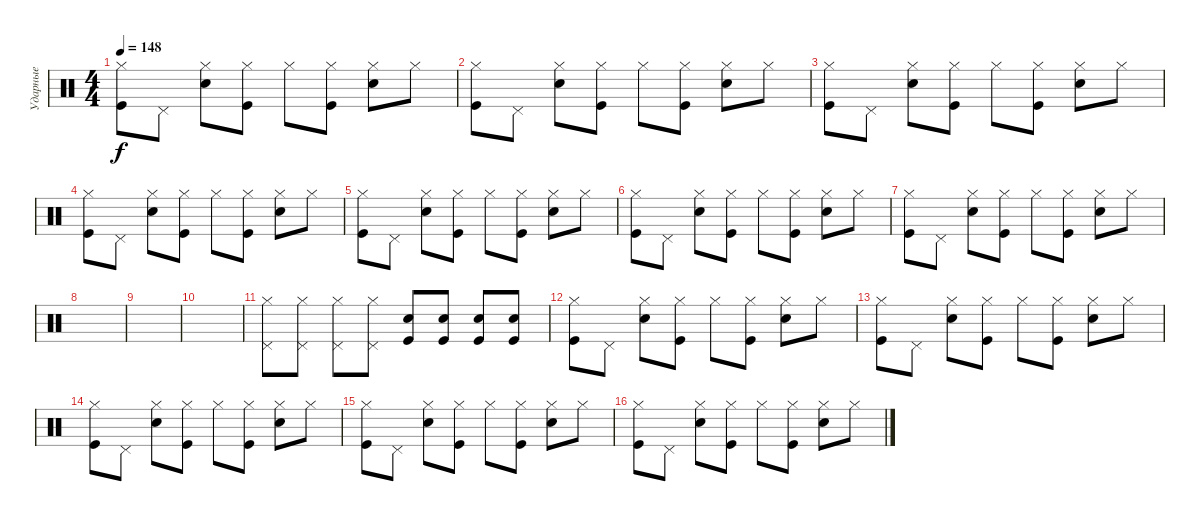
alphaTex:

\track ("Ударные" "Ударные") {instrument percussion}
\staff {score}
\articulation defaults
\ts (4 4)
\tempo 148
\clef neutral
\ks c
("Hi-Hat (closed)" "Kick (hit)").8{dy f} "Pedal Hi-Hat (hit)".8 ("Hi-Hat (closed)" "Snare (hit) 2").8 ("Hi-Hat (closed)" "Kick (hit)").8 "Hi-Hat (closed)".8 ("Hi-Hat (closed)" "Kick (hit)").8 ("Hi-Hat (closed)" "Snare (hit) 2").8 "Hi-Hat (closed)".8 |
("Hi-Hat (closed)" "Kick (hit)").8 "Pedal Hi-Hat (hit)".8 ("Hi-Hat (closed)" "Snare (hit) 2").8 ("Hi-Hat (closed)" "Kick (hit)").8 "Hi-Hat (closed)".8 ("Hi-Hat (closed)" "Kick (hit)").8 ("Hi-Hat (closed)" "Snare (hit) 2").8 "Hi-Hat (closed)".8 |
("Hi-Hat (closed)" "Kick (hit)").8 "Pedal Hi-Hat (hit)".8 ("Hi-Hat (closed)" "Snare (hit) 2").8 ("Hi-Hat (closed)" "Kick (hit)").8 "Hi-Hat (closed)".8 ("Hi-Hat (closed)" "Kick (hit)").8 ("Hi-Hat (closed)" "Snare (hit) 2").8 "Hi-Hat (closed)".8 |
("Hi-Hat (closed)" "Kick (hit)").8 "Pedal Hi-Hat (hit)".8 ("Hi-Hat (closed)" "Snare (hit) 2").8 ("Hi-Hat (closed)" "Kick (hit)").8 "Hi-Hat (closed)".8 ("Hi-Hat (closed)" "Kick (hit)").8 ("Hi-Hat (closed)" "Snare (hit) 2").8 "Hi-Hat (closed)".8 |
("Hi-Hat (closed)" "Kick (hit)").8 "Pedal Hi-Hat (hit)".8 ("Hi-Hat (closed)" "Snare (hit) 2").8 ("Hi-Hat (closed)" "Kick (hit)").8 "Hi-Hat (closed)".8 ("Hi-Hat (closed)" "Kick (hit)").8 ("Hi-Hat (closed)" "Snare (hit) 2").8 "Hi-Hat (closed)".8 |
("Hi-Hat (closed)" "Kick (hit)").8 "Pedal Hi-Hat (hit)".8 ("Hi-Hat (closed)" "Snare (hit) 2").8 ("Hi-Hat (closed)" "Kick (hit)").8 "Hi-Hat (closed)".8 ("Hi-Hat (closed)" "Kick (hit)").8 ("Hi-Hat (closed)" "Snare (hit) 2").8 "Hi-Hat (closed)".8 |
("Hi-Hat (closed)" "Kick (hit)").8 "Pedal Hi-Hat (hit)".8 ("Hi-Hat (closed)" "Snare (hit) 2").8 ("Hi-Hat (closed)" "Kick (hit)").8 "Hi-Hat (closed)".8 ("Hi-Hat (closed)" "Kick (hit)").8 ("Hi-Hat (closed)" "Snare (hit) 2").8 "Hi-Hat (closed)".8 |
|
|
|
("Pedal Hi-Hat (hit)" "Hi-Hat (closed)").8 ("Pedal Hi-Hat (hit)" "Hi-Hat (closed)").8 ("Pedal Hi-Hat (hit)" "Hi-Hat (closed)").8 ("Pedal Hi-Hat (hit)" "Hi-Hat (closed)").8 ("Kick (hit)" "Snare (hit) 2").8 ("Kick (hit)" "Snare (hit) 2").8 ("Kick (hit)" "Snare (hit) 2").8 ("Kick (hit)" "Snare (hit) 2").8 |
("Hi-Hat (closed)" "Kick (hit)").8 "Pedal Hi-Hat (hit)".8 ("Hi-Hat (closed)" "Snare (hit) 2").8 ("Hi-Hat (closed)" "Kick (hit)").8 "Hi-Hat (closed)".8 ("Hi-Hat (closed)" "Kick (hit)").8 ("Hi-Hat (closed)" "Snare (hit) 2").8 "Hi-Hat (closed)".8 |
("Hi-Hat (closed)" "Kick (hit)").8 "Pedal Hi-Hat (hit)".8 ("Hi-Hat (closed)" "Snare (hit) 2").8 ("Hi-Hat (closed)" "Kick (hit)").8 "Hi-Hat (closed)".8 ("Hi-Hat (closed)" "Kick (hit)").8 ("Hi-Hat (closed)" "Snare (hit) 2").8 "Hi-Hat (closed)".8 |
("Hi-Hat (closed)" "Kick (hit)").8 "Pedal Hi-Hat (hit)".8 ("Hi-Hat (closed)" "Snare (hit) 2").8 ("Hi-Hat (closed)" "Kick (hit)").8 "Hi-Hat (closed)".8 ("Hi-Hat (closed)" "Kick (hit)").8 ("Hi-Hat (closed)" "Snare (hit) 2").8 "Hi-Hat (closed)".8 |
("Hi-Hat (closed)" "Kick (hit)").8 "Pedal Hi-Hat (hit)".8 ("Hi-Hat (closed)" "Snare (hit) 2").8 ("Hi-Hat (closed)" "Kick (hit)").8 "Hi-Hat (closed)".8 ("Hi-Hat (closed)" "Kick (hit)").8 ("Hi-Hat (closed)" "Snare (hit) 2").8 "Hi-Hat (closed)".8 |
("Hi-Hat (closed)" "Kick (hit)").8 "Pedal Hi-Hat (hit)".8 ("Hi-Hat (closed)" "Snare (hit) 2").8 ("Hi-Hat (closed)" "Kick (hit)").8 "Hi-Hat (closed)".8 ("Hi-Hat (closed)" "Kick (hit)").8 ("Hi-Hat (closed)" "Snare (hit) 2").8 "Hi-Hat (closed)".8
